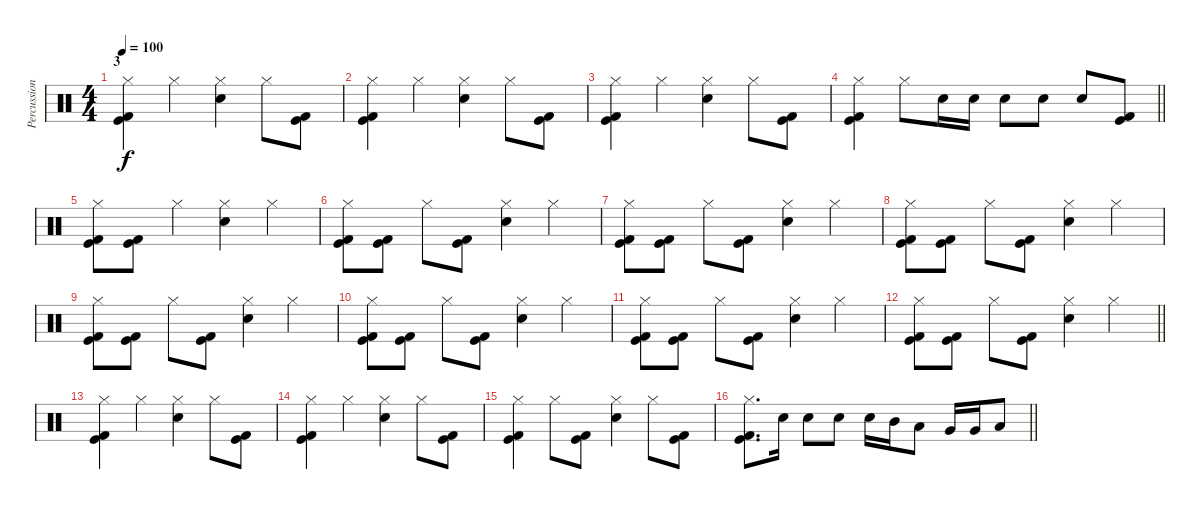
\track ("Percussion" "Percussion") {instrument percussion}
\staff {score}
\articulation defaults
\ts (4 4)
\section ("" "3")
\tempo 100
\clef neutral
\ks c
("Hi-Hat (closed)" "Kick (hit)" "Kick (hit) 2").4{dy f} "Hi-Hat (closed)".4 ("Hi-Hat (closed)" "Electric Snare (hit)").4 "Hi-Hat (closed)".8 ("Kick (hit)" "Kick (hit) 2").8 |
("Hi-Hat (closed)" "Kick (hit)" "Kick (hit) 2").4 "Hi-Hat (closed)".4 ("Hi-Hat (closed)" "Electric Snare (hit)").4 "Hi-Hat (closed)".8 ("Kick (hit)" "Kick (hit) 2").8 |
("Hi-Hat (closed)" "Kick (hit)" "Kick (hit) 2").4 "Hi-Hat (closed)".4 ("Hi-Hat (closed)" "Electric Snare (hit)").4 "Hi-Hat (closed)".8 ("Kick (hit)" "Kick (hit) 2").8 |
\barLineRight lightlight
("Hi-Hat (closed)" "Kick (hit)" "Kick (hit) 2").4 "Hi-Hat (closed)".8 "Electric Snare (hit)".16 "Electric Snare (hit)".16 "Electric Snare (hit)".8 "Electric Snare (hit)".8 "Electric Snare (hit)".8 ("Kick (hit)" "Kick (hit) 2").8 |
\section ("" "")
("Hi-Hat (closed)" "Kick (hit)" "Kick (hit) 2").8 ("Kick (hit)" "Kick (hit) 2").8 "Hi-Hat (closed)".4 ("Hi-Hat (closed)" "Electric Snare (hit)").4 "Hi-Hat (closed)".4 |
("Hi-Hat (closed)" "Kick (hit)" "Kick (hit) 2").8 ("Kick (hit)" "Kick (hit) 2").8 "Hi-Hat (closed)".8 ("Kick (hit)" "Kick (hit) 2").8 ("Hi-Hat (closed)" "Electric Snare (hit)").4 "Hi-Hat (closed)".4 |
("Hi-Hat (closed)" "Kick (hit)" "Kick (hit) 2").8 ("Kick (hit)" "Kick (hit) 2").8 "Hi-Hat (closed)".8 ("Kick (hit)" "Kick (hit) 2").8 ("Hi-Hat (closed)" "Electric Snare (hit)").4 "Hi-Hat (closed)".4 |
("Hi-Hat (closed)" "Kick (hit)" "Kick (hit) 2").8 ("Kick (hit)" "Kick (hit) 2").8 "Hi-Hat (closed)".8 ("Kick (hit)" "Kick (hit) 2").8 ("Hi-Hat (closed)" "Electric Snare (hit)").4 "Hi-Hat (closed)".4 |
("Hi-Hat (closed)" "Kick (hit)" "Kick (hit) 2").8 ("Kick (hit)" "Kick (hit) 2").8 "Hi-Hat (closed)".8 ("Kick (hit)" "Kick (hit) 2").8 ("Hi-Hat (closed)" "Electric Snare (hit)").4 "Hi-Hat (closed)".4 |
("Hi-Hat (closed)" "Kick (hit)" "Kick (hit) 2").8 ("Kick (hit)" "Kick (hit) 2").8 "Hi-Hat (closed)".8 ("Kick (hit)" "Kick (hit) 2").8 ("Hi-Hat (closed)" "Electric Snare (hit)").4 "Hi-Hat (closed)".4 |
("Hi-Hat (closed)" "Kick (hit)" "Kick (hit) 2").8 ("Kick (hit)" "Kick (hit) 2").8 "Hi-Hat (closed)".8 ("Kick (hit)" "Kick (hit) 2").8 ("Hi-Hat (closed)" "Electric Snare (hit)").4 "Hi-Hat (closed)".4 |
\barLineRight lightlight
("Hi-Hat (closed)" "Kick (hit)" "Kick (hit) 2").8 ("Kick (hit)" "Kick (hit) 2").8 "Hi-Hat (closed)".8 ("Kick (hit)" "Kick (hit) 2").8 ("Hi-Hat (closed)" "Electric Snare (hit)").4 "Hi-Hat (closed)".4 |
\section ("" "")
("Hi-Hat (closed)" "Kick (hit)" "Kick (hit) 2").4 "Hi-Hat (closed)".4 ("Hi-Hat (closed)" "Electric Snare (hit)").4 "Hi-Hat (closed)".8 ("Kick (hit)" "Kick (hit) 2").8 |
("Hi-Hat (closed)" "Kick (hit)" "Kick (hit) 2").4 "Hi-Hat (closed)".4 ("Hi-Hat (closed)" "Electric Snare (hit)").4 "Hi-Hat (closed)".8 ("Kick (hit)" "Kick (hit) 2").8 |
("Hi-Hat (closed)" "Kick (hit)" "Kick (hit) 2").4 "Hi-Hat (closed)".8 ("Kick (hit)" "Kick (hit) 2").8 ("Hi-Hat (closed)" "Electric Snare (hit)").4 "Hi-Hat (closed)".8 ("Kick (hit)" "Kick (hit) 2").8 |
\barLineRight lightlight
("Hi-Hat (closed)" "Kick (hit)" "Kick (hit) 2").8{d} "Electric Snare (hit)".16 "Electric Snare (hit)".8 "Electric Snare (hit)".8 "Electric Snare (hit)".16 "Mid Tom (hit)".16 "Low Tom (hit)".8 "Very Low Tom (hit)".16 "Very Low Tom (hit)".16 "Low Floor Tom (hit)".8
